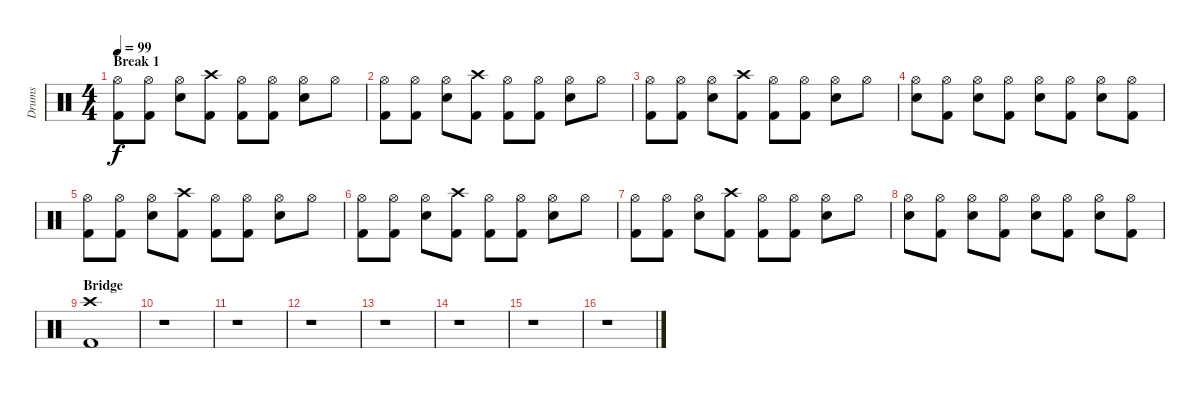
\track ("Drums " "Drums ") {instrument percussion}
\staff {score}
\articulation defaults
\ts (4 4)
\section ("" "Break 1")
\tempo 99
\clef neutral
\ks c
("Hi-Hat (open)" "Kick (hit) 2").8{dy f} ("Hi-Hat (open)" "Kick (hit) 2").8 ("Hi-Hat (open)" "Snare (hit) 2").8 ("Crash high (hit)" "Kick (hit) 2").8 ("Hi-Hat (open)" "Kick (hit) 2").8 ("Hi-Hat (open)" "Kick (hit) 2").8 ("Hi-Hat (open)" "Snare (hit) 2").8 "Hi-Hat (open)".8 |
("Hi-Hat (open)" "Kick (hit) 2").8 ("Hi-Hat (open)" "Kick (hit) 2").8 ("Hi-Hat (open)" "Snare (hit) 2").8 ("Crash high (hit)" "Kick (hit) 2").8 ("Hi-Hat (open)" "Kick (hit) 2").8 ("Hi-Hat (open)" "Kick (hit) 2").8 ("Hi-Hat (open)" "Snare (hit) 2").8 "Hi-Hat (open)".8 |
("Hi-Hat (open)" "Kick (hit) 2").8 ("Hi-Hat (open)" "Kick (hit) 2").8 ("Hi-Hat (open)" "Snare (hit) 2").8 ("Crash high (hit)" "Kick (hit) 2").8 ("Hi-Hat (open)" "Kick (hit) 2").8 ("Hi-Hat (open)" "Kick (hit) 2").8 ("Hi-Hat (open)" "Snare (hit) 2").8 "Hi-Hat (open)".8 |
("Hi-Hat (open)" "Snare (hit) 2").8 ("Hi-Hat (open)" "Kick (hit) 2").8 ("Hi-Hat (open)" "Snare (hit) 2").8 ("Hi-Hat (open)" "Kick (hit) 2").8 ("Hi-Hat (open)" "Snare (hit) 2").8 ("Hi-Hat (open)" "Kick (hit) 2").8 ("Hi-Hat (open)" "Snare (hit) 2").8 ("Hi-Hat (open)" "Kick (hit) 2").8 |
("Hi-Hat (open)" "Kick (hit) 2").8 ("Hi-Hat (open)" "Kick (hit) 2").8 ("Hi-Hat (open)" "Snare (hit) 2").8 ("Crash high (hit)" "Kick (hit) 2").8 ("Hi-Hat (open)" "Kick (hit) 2").8 ("Hi-Hat (open)" "Kick (hit) 2").8 ("Hi-Hat (open)" "Snare (hit) 2").8 "Hi-Hat (open)".8 |
("Hi-Hat (open)" "Kick (hit) 2").8 ("Hi-Hat (open)" "Kick (hit) 2").8 ("Hi-Hat (open)" "Snare (hit) 2").8 ("Crash high (hit)" "Kick (hit) 2").8 ("Hi-Hat (open)" "Kick (hit) 2").8 ("Hi-Hat (open)" "Kick (hit) 2").8 ("Hi-Hat (open)" "Snare (hit) 2").8 "Hi-Hat (open)".8 |
("Hi-Hat (open)" "Kick (hit) 2").8 ("Hi-Hat (open)" "Kick (hit) 2").8 ("Hi-Hat (open)" "Snare (hit) 2").8 ("Crash high (hit)" "Kick (hit) 2").8 ("Hi-Hat (open)" "Kick (hit) 2").8 ("Hi-Hat (open)" "Kick (hit) 2").8 ("Hi-Hat (open)" "Snare (hit) 2").8 "Hi-Hat (open)".8 |
("Hi-Hat (open)" "Snare (hit) 2").8 ("Hi-Hat (open)" "Kick (hit) 2").8 ("Hi-Hat (open)" "Snare (hit) 2").8 ("Hi-Hat (open)" "Kick (hit) 2").8 ("Hi-Hat (open)" "Snare (hit) 2").8 ("Hi-Hat (open)" "Kick (hit) 2").8 ("Hi-Hat (open)" "Snare (hit) 2").8 ("Hi-Hat (open)" "Kick (hit) 2").8 |
\section ("" "Bridge")
("Crash high (hit)" "Kick (hit) 2").1 |
r.1 |
r.1 |
r.1 |
r.1 |
r.1 |
r.1 |
r.1
